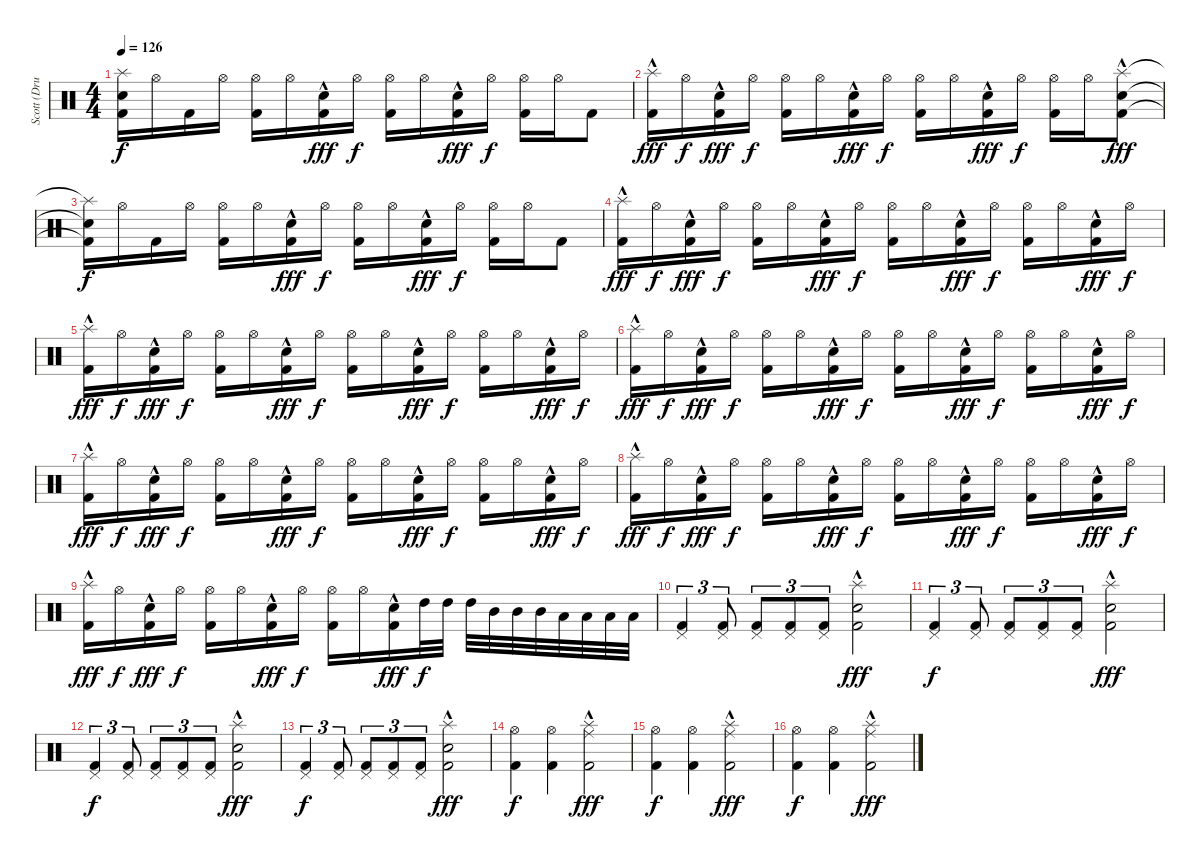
\track ("Scott (Drums)" "Scott (Dru") {instrument percussion}
\staff {score}
\articulation defaults
\ts (4 4)
\tempo 126
\clef neutral
\ks c
("Splash (hit)"{t} "Snare (hit)"{t} "Kick (hit) 2"{t}).16{dy f} "Hi-Hat (open)".16 "Kick (hit) 2".16 "Hi-Hat (open)".16 ("Hi-Hat (open)" "Kick (hit) 2").16 "Hi-Hat (open)".16 ("Electric Snare (hit)"{hac} "Kick (hit) 2").16{dy fff} "Hi-Hat (open)".16{dy f} ("Hi-Hat (open)" "Kick (hit) 2").16 "Hi-Hat (open)".16 ("Electric Snare (hit)"{hac} "Kick (hit) 2").16{dy fff} "Hi-Hat (open)".16{dy f} ("Hi-Hat (open)" "Kick (hit) 2").16 "Hi-Hat (open)".16 "Kick (hit) 2".8 |
("Splash (hit)"{hac} "Kick (hit) 2").16{dy fff} "Hi-Hat (open)".16{dy f} ("Electric Snare (hit)"{hac} "Kick (hit) 2").16{dy fff} "Hi-Hat (open)".16{dy f} ("Hi-Hat (open)" "Kick (hit) 2").16 "Hi-Hat (open)".16 ("Electric Snare (hit)"{hac} "Kick (hit) 2").16{dy fff} "Hi-Hat (open)".16{dy f} ("Hi-Hat (open)" "Kick (hit) 2").16 "Hi-Hat (open)".16 ("Electric Snare (hit)"{hac} "Kick (hit) 2").16{dy fff} "Hi-Hat (open)".16{dy f} ("Hi-Hat (open)" "Kick (hit) 2").16 "Hi-Hat (open)".16 ("Splash (hit)"{hac} "Electric Snare (hit)"{hac} "Kick (hit) 2").8{dy fff} |
("Splash (hit)"{t} "Snare (hit)"{t} "Kick (hit) 2"{t}).16{dy f} "Hi-Hat (open)".16 "Kick (hit) 2".16 "Hi-Hat (open)".16 ("Hi-Hat (open)" "Kick (hit) 2").16 "Hi-Hat (open)".16 ("Electric Snare (hit)"{hac} "Kick (hit) 2").16{dy fff} "Hi-Hat (open)".16{dy f} ("Hi-Hat (open)" "Kick (hit) 2").16 "Hi-Hat (open)".16 ("Electric Snare (hit)"{hac} "Kick (hit) 2").16{dy fff} "Hi-Hat (open)".16{dy f} ("Hi-Hat (open)" "Kick (hit) 2").16 "Hi-Hat (open)".16 "Kick (hit) 2".8 |
("Splash (hit)"{hac} "Kick (hit) 2").16{dy fff} "Hi-Hat (open)".16{dy f} ("Electric Snare (hit)"{hac} "Kick (hit) 2").16{dy fff} "Hi-Hat (open)".16{dy f} ("Hi-Hat (open)" "Kick (hit) 2").16 "Hi-Hat (open)".16 ("Electric Snare (hit)"{hac} "Kick (hit) 2").16{dy fff} "Hi-Hat (open)".16{dy f} ("Hi-Hat (open)" "Kick (hit) 2").16 "Hi-Hat (open)".16 ("Electric Snare (hit)"{hac} "Kick (hit) 2").16{dy fff} "Hi-Hat (open)".16{dy f} ("Hi-Hat (open)" "Kick (hit) 2").16 "Hi-Hat (open)".16 ("Electric Snare (hit)"{hac} "Kick (hit) 2").16{dy fff} "Hi-Hat (open)".16{dy f} |
("Splash (hit)"{hac} "Kick (hit) 2").16{dy fff} "Hi-Hat (open)".16{dy f} ("Electric Snare (hit)"{hac} "Kick (hit) 2").16{dy fff} "Hi-Hat (open)".16{dy f} ("Hi-Hat (open)" "Kick (hit) 2").16 "Hi-Hat (open)".16 ("Electric Snare (hit)"{hac} "Kick (hit) 2").16{dy fff} "Hi-Hat (open)".16{dy f} ("Hi-Hat (open)" "Kick (hit) 2").16 "Hi-Hat (open)".16 ("Electric Snare (hit)"{hac} "Kick (hit) 2").16{dy fff} "Hi-Hat (open)".16{dy f} ("Hi-Hat (open)" "Kick (hit) 2").16 "Hi-Hat (open)".16 ("Electric Snare (hit)"{hac} "Kick (hit) 2").16{dy fff} "Hi-Hat (open)".16{dy f} |
("Splash (hit)"{hac} "Kick (hit) 2").16{dy fff} "Hi-Hat (open)".16{dy f} ("Electric Snare (hit)"{hac} "Kick (hit) 2").16{dy fff} "Hi-Hat (open)".16{dy f} ("Hi-Hat (open)" "Kick (hit) 2").16 "Hi-Hat (open)".16 ("Electric Snare (hit)"{hac} "Kick (hit) 2").16{dy fff} "Hi-Hat (open)".16{dy f} ("Hi-Hat (open)" "Kick (hit) 2").16 "Hi-Hat (open)".16 ("Electric Snare (hit)"{hac} "Kick (hit) 2").16{dy fff} "Hi-Hat (open)".16{dy f} ("Hi-Hat (open)" "Kick (hit) 2").16 "Hi-Hat (open)".16 ("Electric Snare (hit)"{hac} "Kick (hit) 2").16{dy fff} "Hi-Hat (open)".16{dy f} |
("Splash (hit)"{hac} "Kick (hit) 2").16{dy fff} "Hi-Hat (open)".16{dy f} ("Electric Snare (hit)"{hac} "Kick (hit) 2").16{dy fff} "Hi-Hat (open)".16{dy f} ("Hi-Hat (open)" "Kick (hit) 2").16 "Hi-Hat (open)".16 ("Electric Snare (hit)"{hac} "Kick (hit) 2").16{dy fff} "Hi-Hat (open)".16{dy f} ("Hi-Hat (open)" "Kick (hit) 2").16 "Hi-Hat (open)".16 ("Electric Snare (hit)"{hac} "Kick (hit) 2").16{dy fff} "Hi-Hat (open)".16{dy f} ("Hi-Hat (open)" "Kick (hit) 2").16 "Hi-Hat (open)".16 ("Electric Snare (hit)"{hac} "Kick (hit) 2").16{dy fff} "Hi-Hat (open)".16{dy f} |
("Splash (hit)"{hac} "Kick (hit) 2").16{dy fff} "Hi-Hat (open)".16{dy f} ("Electric Snare (hit)"{hac} "Kick (hit) 2").16{dy fff} "Hi-Hat (open)".16{dy f} ("Hi-Hat (open)" "Kick (hit) 2").16 "Hi-Hat (open)".16 ("Electric Snare (hit)"{hac} "Kick (hit) 2").16{dy fff} "Hi-Hat (open)".16{dy f} ("Hi-Hat (open)" "Kick (hit) 2").16 "Hi-Hat (open)".16 ("Electric Snare (hit)"{hac} "Kick (hit) 2").16{dy fff} "Hi-Hat (open)".16{dy f} ("Hi-Hat (open)" "Kick (hit) 2").16 "Hi-Hat (open)".16 ("Electric Snare (hit)"{hac} "Kick (hit) 2").16{dy fff} "Hi-Hat (open)".16{dy f} |
("Splash (hit)"{hac} "Kick (hit) 2").16{dy fff} "Hi-Hat (open)".16{dy f} ("Electric Snare (hit)"{hac} "Kick (hit) 2").16{dy fff} "Hi-Hat (open)".16{dy f} ("Hi-Hat (open)" "Kick (hit) 2").16 "Hi-Hat (open)".16 ("Electric Snare (hit)"{hac} "Kick (hit) 2").16{dy fff} "Hi-Hat (open)".16{dy f} ("Hi-Hat (open)" "Kick (hit) 2").16 "Hi-Hat (open)".16 ("Electric Snare (hit)"{hac} "Kick (hit) 2").16{dy fff} "High Tom (hit)".32{dy f} "High Tom (hit)".32 "High Tom (hit)".32 "Mid Tom (hit)".32 "Mid Tom (hit)".32 "Mid Tom (hit)".32 "Low Tom (hit)".32 "Low Tom (hit)".32 "Low Tom (hit)".32 "Low Floor Tom (hit)".32 |
("Pedal Hi-Hat (hit)" "Kick (hit) 2").4{tu (3 2)} ("Pedal Hi-Hat (hit)" "Kick (hit) 2").8{tu (3 2)} ("Pedal Hi-Hat (hit)" "Kick (hit) 2").8{tu (3 2)} ("Pedal Hi-Hat (hit)" "Kick (hit) 2").8{tu (3 2)} ("Pedal Hi-Hat (hit)" "Kick (hit) 2").8{tu (3 2)} ("Splash (hit)"{hac} "Electric Snare (hit)"{hac} "Kick (hit) 2").2{dy fff} |
("Pedal Hi-Hat (hit)" "Kick (hit) 2").4{tu (3 2) dy f} ("Pedal Hi-Hat (hit)" "Kick (hit) 2").8{tu (3 2)} ("Pedal Hi-Hat (hit)" "Kick (hit) 2").8{tu (3 2)} ("Pedal Hi-Hat (hit)" "Kick (hit) 2").8{tu (3 2)} ("Pedal Hi-Hat (hit)" "Kick (hit) 2").8{tu (3 2)} ("Splash (hit)"{hac} "Electric Snare (hit)"{hac} "Kick (hit) 2").2{dy fff} |
("Pedal Hi-Hat (hit)" "Kick (hit) 2").4{tu (3 2) dy f} ("Pedal Hi-Hat (hit)" "Kick (hit) 2").8{tu (3 2)} ("Pedal Hi-Hat (hit)" "Kick (hit) 2").8{tu (3 2)} ("Pedal Hi-Hat (hit)" "Kick (hit) 2").8{tu (3 2)} ("Pedal Hi-Hat (hit)" "Kick (hit) 2").8{tu (3 2)} ("Splash (hit)"{hac} "Electric Snare (hit)"{hac} "Kick (hit) 2").2{dy fff} |
("Pedal Hi-Hat (hit)" "Kick (hit) 2").4{tu (3 2) dy f} ("Pedal Hi-Hat (hit)" "Kick (hit) 2").8{tu (3 2)} ("Pedal Hi-Hat (hit)" "Kick (hit) 2").8{tu (3 2)} ("Pedal Hi-Hat (hit)" "Kick (hit) 2").8{tu (3 2)} ("Pedal Hi-Hat (hit)" "Kick (hit) 2").8{tu (3 2)} ("Splash (hit)"{hac} "Electric Snare (hit)"{hac} "Kick (hit) 2").2{dy fff} |
("Hi-Hat (open)" "Kick (hit) 2").4{dy f} ("Hi-Hat (open)" "Kick (hit) 2").4 ("Splash (hit)"{hac} "Ride (middle)"{hac} "Kick (hit) 2"{hac}).2{dy fff} |
("Hi-Hat (open)" "Kick (hit) 2").4{dy f} ("Hi-Hat (open)" "Kick (hit) 2").4 ("Splash (hit)"{hac} "Ride (middle)"{hac} "Kick (hit) 2"{hac}).2{dy fff} |
("Hi-Hat (open)" "Kick (hit) 2").4{dy f} ("Hi-Hat (open)" "Kick (hit) 2").4 ("Splash (hit)"{hac} "Ride (middle)"{hac} "Kick (hit) 2"{hac}).2{dy fff}
